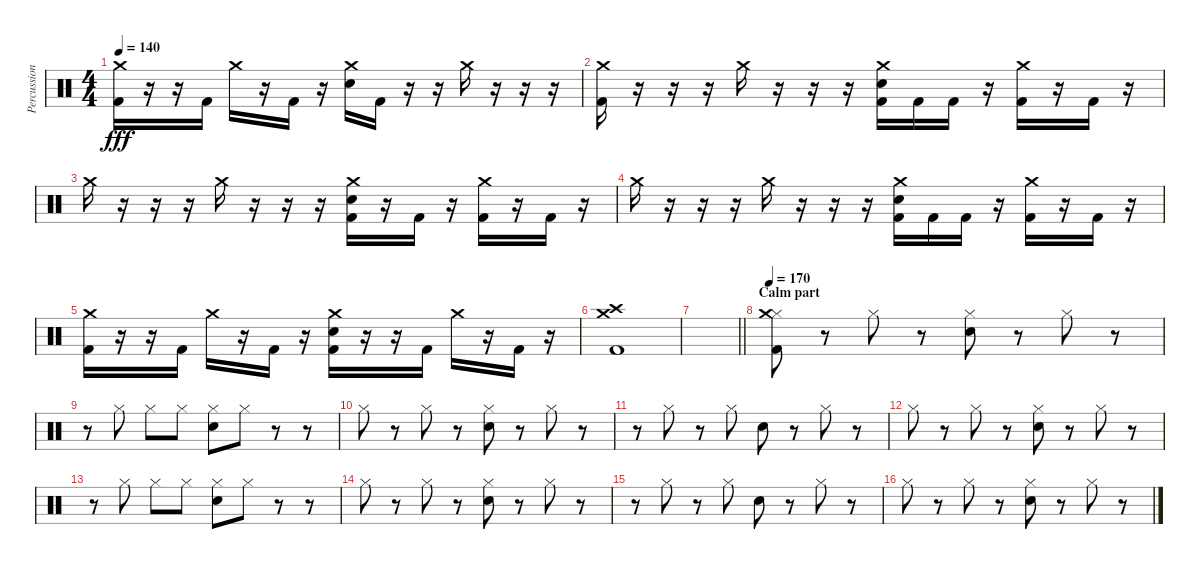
\track ("Percussion" "Percussion") {instrument percussion}
\staff {score}
\articulation defaults
\ts (4 4)
\tempo 140
\clef neutral
\ks c
("Crash medium (hit)" "Kick (hit) 2").16{dy fff} r.16 r.16 "Kick (hit) 2".16 "Crash medium (hit)".16 r.16 "Kick (hit) 2".16 r.16 ("Crash medium (hit)" "Electric Snare (hit)").16 "Kick (hit) 2".16 r.16 r.16 "Crash medium (hit)".16 r.16 r.16 r.16 |
("Crash medium (hit)" "Kick (hit) 2").16 r.16 r.16 r.16 "Crash medium (hit)".16 r.16 r.16 r.16 ("Crash medium (hit)" "Electric Snare (hit)" "Kick (hit) 2").16 "Kick (hit) 2".16 "Kick (hit) 2".16 r.16 ("Crash medium (hit)" "Kick (hit) 2").16 r.16 "Kick (hit) 2".16 r.16 |
"Crash medium (hit)".16 r.16 r.16 r.16 "Crash medium (hit)".16 r.16 r.16 r.16 ("Crash medium (hit)" "Electric Snare (hit)" "Kick (hit) 2").16 r.16 "Kick (hit) 2".16 r.16 ("Crash medium (hit)" "Kick (hit) 2").16 r.16 "Kick (hit) 2".16 r.16 |
"Crash medium (hit)".16 r.16 r.16 r.16 "Crash medium (hit)".16 r.16 r.16 r.16 ("Crash medium (hit)" "Electric Snare (hit)" "Kick (hit) 2").16 "Kick (hit) 2".16 "Kick (hit) 2".16 r.16 ("Crash medium (hit)" "Kick (hit) 2").16 r.16 "Kick (hit) 2".16 r.16 |
("Crash medium (hit)" "Kick (hit) 2").16 r.16 r.16 "Kick (hit) 2".16 "Crash medium (hit)".16 r.16 "Kick (hit) 2".16 r.16 ("Crash medium (hit)" "Electric Snare (hit)" "Kick (hit) 2").16 r.16 r.16 "Kick (hit) 2".16 "Crash medium (hit)".16 r.16 "Kick (hit) 2".16 r.16 |
("Crash medium (hit)" "Crash high (hit)" "Kick (hit) 2").1 |
\barLineRight lightlight
|
\section ("" "Calm part")
\tempo 170
("Hi-Hat (closed)" "Crash medium (hit)" "Kick (hit) 2").8 r.8 "Hi-Hat (closed)".8 r.8 ("Hi-Hat (closed)" "Snare (hit) 2").8 r.8 "Hi-Hat (closed)".8 r.8 |
r.8 "Hi-Hat (closed)".8 "Hi-Hat (closed)".8 "Hi-Hat (closed)".8 ("Hi-Hat (closed)" "Snare (hit) 2").8 "Hi-Hat (closed)".8 r.8 r.8 |
"Hi-Hat (closed)".8 r.8 "Hi-Hat (closed)".8 r.8 ("Hi-Hat (closed)" "Snare (hit) 2").8 r.8 "Hi-Hat (closed)".8 r.8 |
r.8 "Hi-Hat (closed)".8 r.8 "Hi-Hat (closed)".8 "Snare (hit) 2".8 r.8 "Hi-Hat (closed)".8 r.8 |
"Hi-Hat (closed)".8 r.8 "Hi-Hat (closed)".8 r.8 ("Hi-Hat (closed)" "Snare (hit) 2").8 r.8 "Hi-Hat (closed)".8 r.8 |
r.8 "Hi-Hat (closed)".8 "Hi-Hat (closed)".8 "Hi-Hat (closed)".8 ("Hi-Hat (closed)" "Snare (hit) 2").8 "Hi-Hat (closed)".8 r.8 r.8 |
"Hi-Hat (closed)".8 r.8 "Hi-Hat (closed)".8 r.8 ("Hi-Hat (closed)" "Snare (hit) 2").8 r.8 "Hi-Hat (closed)".8 r.8 |
r.8 "Hi-Hat (closed)".8 r.8 "Hi-Hat (closed)".8 "Snare (hit) 2".8 r.8 "Hi-Hat (closed)".8 r.8 |
"Hi-Hat (closed)".8 r.8 "Hi-Hat (closed)".8 r.8 ("Hi-Hat (closed)" "Snare (hit) 2").8 r.8 "Hi-Hat (closed)".8 r.8
